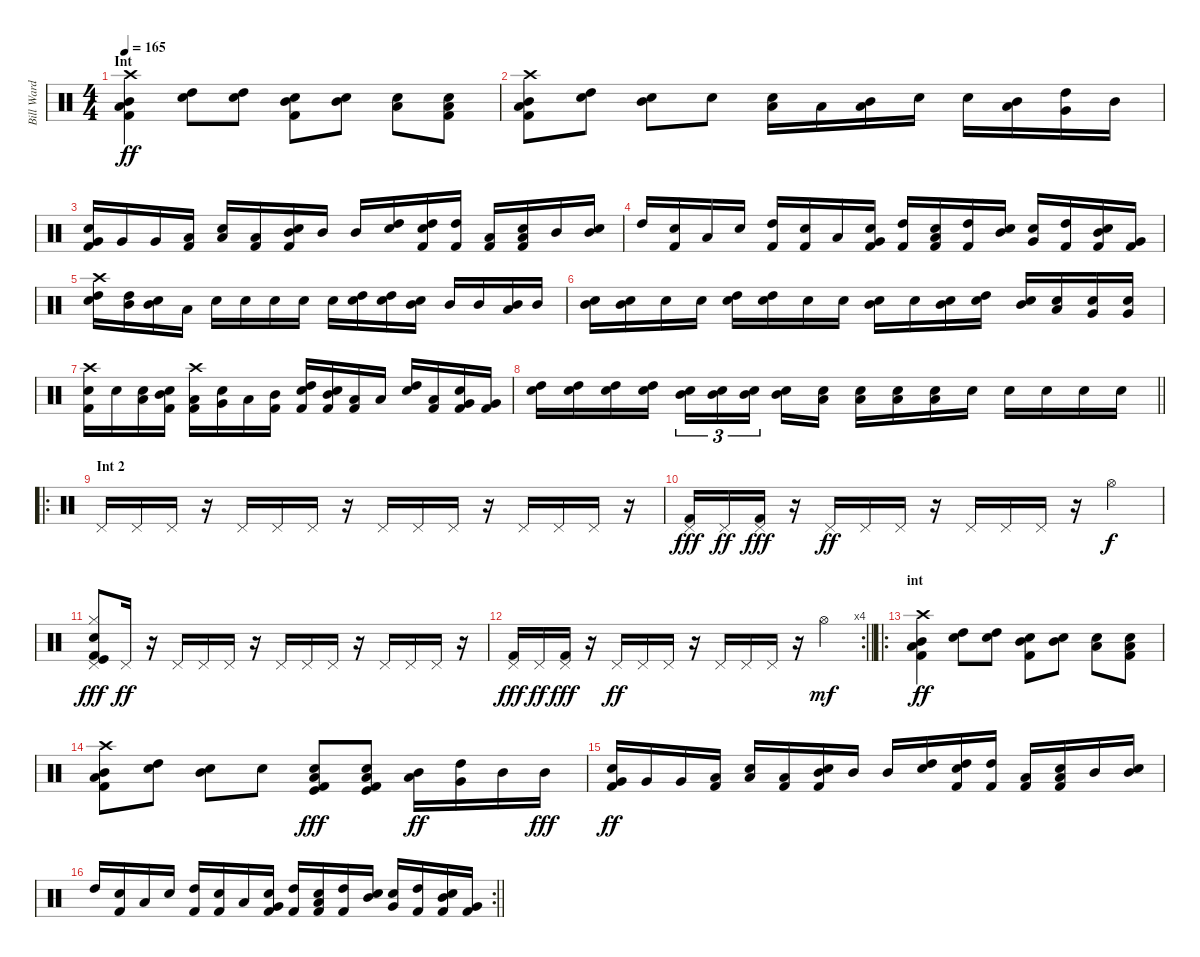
\track ("Bill Ward" "Bill Ward") {instrument percussion}
\staff {score}
\articulation defaults
\ts (4 4)
\section ("" "Int")
\tempo 165
\clef neutral
\ks c
("Crash high (hit)" "Low Tom (hit)" "Mid Tom (hit)" "Kick (hit) 2").4{dy ff} ("High Tom (hit)" "Snare (hit) 2").8 ("High Tom (hit)" "Snare (hit) 2").8 ("Mid Tom (hit)" "Snare (hit) 2" "Kick (hit) 2").8 ("Mid Tom (hit)" "Snare (hit) 2").8 ("Low Tom (hit)" "Snare (hit) 2").8 ("Low Tom (hit)" "Snare (hit) 2" "Kick (hit) 2").8 |
("Crash high (hit)" "Low Tom (hit)" "Mid Tom (hit)" "Kick (hit) 2").8 ("High Tom (hit)" "Snare (hit) 2").8 ("Mid Tom (hit)" "Snare (hit) 2").8 "Snare (hit) 2".8 ("Low Tom (hit)" "Snare (hit) 2").16 "Low Tom (hit)".16 ("Mid Tom (hit)" "Low Tom (hit)").16 "Snare (hit) 2".16 "Snare (hit) 2".16 ("Low Tom (hit)" "Mid Tom (hit)").16 ("Very Low Tom (hit)" "High Tom (hit)").16 "Mid Tom (hit)".16 |
("Very Low Tom (hit)" "Snare (hit) 2" "Kick (hit) 2").16 "Very Low Tom (hit)".16 "Very Low Tom (hit)".16 ("Low Tom (hit)" "Kick (hit) 2").16 ("Low Tom (hit)" "Snare (hit) 2").16 ("Low Tom (hit)" "Kick (hit) 2").16 ("Mid Tom (hit)" "Snare (hit) 2" "Kick (hit) 2").16 "Mid Tom (hit)".16 "Mid Tom (hit)".16 ("High Tom (hit)" "Snare (hit) 2").16 ("High Tom (hit)" "Snare (hit) 2" "Kick (hit) 2").16 ("High Tom (hit)" "Kick (hit) 2").16 ("Low Tom (hit)" "Kick (hit) 2").16 ("Low Tom (hit)" "Snare (hit) 2" "Kick (hit) 2").16 "Mid Tom (hit)".16 ("Mid Tom (hit)" "Snare (hit) 2").16 |
"High Tom (hit)".16 ("Snare (hit) 2" "Kick (hit) 2").16 "Low Tom (hit)".16 "Snare (hit) 2".16 ("High Tom (hit)" "Kick (hit) 2").16 ("Snare (hit) 2" "Kick (hit) 2").16 "Low Tom (hit)".16 ("Snare (hit) 2" "Very Low Tom (hit)" "Kick (hit) 2").16 ("High Tom (hit)" "Kick (hit) 2").16 ("Snare (hit) 2" "Low Tom (hit)" "Kick (hit) 2").16 ("High Tom (hit)" "Kick (hit) 2").16 ("Snare (hit) 2" "Mid Tom (hit)").16 ("Snare (hit) 2" "Very Low Tom (hit)").16 ("High Tom (hit)" "Kick (hit) 2").16 ("Snare (hit) 2" "Mid Tom (hit)" "Kick (hit) 2").16 ("Very Low Tom (hit)" "Kick (hit) 2").16 |
("Crash high (hit)" "High Tom (hit)" "Snare (hit) 2").16 ("High Tom (hit)" "Mid Tom (hit)").16 ("Mid Tom (hit)" "Snare (hit) 2").16 "Low Tom (hit)".16 "Snare (hit) 2".16 "Snare (hit) 2".16 "Electric Snare (hit)".16 "Electric Snare (hit)".16 "Snare (hit) 2".16 ("High Tom (hit)" "Electric Snare (hit)").16 ("High Tom (hit)" "Snare (hit) 2").16 ("Mid Tom (hit)" "Snare (hit) 2").16 "Mid Tom (hit)".16 "Mid Tom (hit)".16 ("Mid Tom (hit)" "Low Tom (hit)").16 "Mid Tom (hit)".16 |
("Mid Tom (hit)" "Snare (hit) 2").16 ("Mid Tom (hit)" "Snare (hit) 2").16 "Snare (hit) 2".16 "Electric Snare (hit)".16 ("High Tom (hit)" "Electric Snare (hit)").16 ("High Tom (hit)" "Snare (hit) 2").16 "Electric Snare (hit)".16 "Snare (hit) 2".16 ("Mid Tom (hit)" "Snare (hit) 2").16 "Electric Snare (hit)".16 ("Mid Tom (hit)" "Snare (hit) 2").16 ("High Tom (hit)" "Snare (hit) 2").16 ("Mid Tom (hit)" "Electric Snare (hit)").16 ("Low Tom (hit)" "Snare (hit) 2").16 ("Very Low Tom (hit)" "Snare (hit) 2").16 ("Very Low Tom (hit)" "Snare (hit) 2").16 |
("Crash high (hit)" "Snare (hit) 2" "Kick (hit) 2").16 "Snare (hit) 2".16 ("Low Tom (hit)" "Snare (hit) 2").16 ("Mid Tom (hit)" "Snare (hit) 2" "Kick (hit) 2").16 ("Crash high (hit)" "Low Tom (hit)" "Kick (hit) 2").16 ("Very Low Tom (hit)" "Snare (hit) 2").16 "Low Tom (hit)".16 ("Mid Tom (hit)" "Kick (hit) 2").16 ("High Tom (hit)" "Snare (hit) 2" "Kick (hit) 2").16 ("Mid Tom (hit)" "Snare (hit) 2" "Kick (hit) 2").16 ("Low Tom (hit)" "Kick (hit) 2").16 "Low Tom (hit)".16 ("High Tom (hit)" "Snare (hit) 2").16 ("Low Tom (hit)" "Kick (hit) 2").16 ("Very Low Tom (hit)" "Snare (hit) 2" "Kick (hit) 2").16 ("Very Low Tom (hit)" "Kick (hit) 2").16 |
\barLineRight lightlight
("High Tom (hit)" "Snare (hit) 2").16 ("High Tom (hit)" "Snare (hit) 2").16 ("High Tom (hit)" "Snare (hit) 2").16 ("High Tom (hit)" "Snare (hit) 2").16 ("Mid Tom (hit)" "Snare (hit) 2").16{tu (3 2)} ("Mid Tom (hit)" "Snare (hit) 2").16{tu (3 2)} ("Mid Tom (hit)" "Snare (hit) 2").16{tu (3 2) beam splitsecondary} ("Mid Tom (hit)" "Snare (hit) 2").16 ("Low Tom (hit)" "Snare (hit) 2").16 ("Low Tom (hit)" "Snare (hit) 2").16 ("Low Tom (hit)" "Snare (hit) 2").16 ("Low Tom (hit)" "Snare (hit) 2").16 "Snare (hit) 2".16 "Snare (hit) 2".16 "Snare (hit) 2".16 "Snare (hit) 2".16 "Snare (hit) 2".16 |
\ro
\section ("" "Int 2")
"Pedal Hi-Hat (hit)".16 "Pedal Hi-Hat (hit)".16 "Pedal Hi-Hat (hit)".16 r.16 "Pedal Hi-Hat (hit)".16 "Pedal Hi-Hat (hit)".16 "Pedal Hi-Hat (hit)".16 r.16 "Pedal Hi-Hat (hit)".16 "Pedal Hi-Hat (hit)".16 "Pedal Hi-Hat (hit)".16 r.16 "Pedal Hi-Hat (hit)".16 "Pedal Hi-Hat (hit)".16 "Pedal Hi-Hat (hit)".16 r.16 |
("Pedal Hi-Hat (hit)" "Kick (hit) 2").16{dy fff} "Pedal Hi-Hat (hit)".16{dy ff} ("Pedal Hi-Hat (hit)" "Kick (hit) 2").16{dy fff} r.16 "Pedal Hi-Hat (hit)".16{dy ff} "Pedal Hi-Hat (hit)".16 "Pedal Hi-Hat (hit)".16 r.16 "Pedal Hi-Hat (hit)".16 "Pedal Hi-Hat (hit)".16 "Pedal Hi-Hat (hit)".16 r.16 "Hi-Hat (open)".4{dy f} |
("Hi-Hat (closed)" "Pedal Hi-Hat (hit)" "Snare (hit) 2" "Kick (hit)" "Kick (hit) 2").8{dy fff} "Pedal Hi-Hat (hit)".16{dy ff} r.16 "Pedal Hi-Hat (hit)".16 "Pedal Hi-Hat (hit)".16 "Pedal Hi-Hat (hit)".16 r.16 "Pedal Hi-Hat (hit)".16 "Pedal Hi-Hat (hit)".16 "Pedal Hi-Hat (hit)".16 r.16 "Pedal Hi-Hat (hit)".16 "Pedal Hi-Hat (hit)".16 "Pedal Hi-Hat (hit)".16 r.16 |
\rc 4
\barLineRight lightlight
("Pedal Hi-Hat (hit)" "Kick (hit) 2").16{dy fff} "Pedal Hi-Hat (hit)".16{dy ff} ("Pedal Hi-Hat (hit)" "Kick (hit) 2").16{dy fff} r.16 "Pedal Hi-Hat (hit)".16{dy ff} "Pedal Hi-Hat (hit)".16 "Pedal Hi-Hat (hit)".16 r.16 "Pedal Hi-Hat (hit)".16 "Pedal Hi-Hat (hit)".16 "Pedal Hi-Hat (hit)".16 r.16 "Hi-Hat (open)".4{dy mf} |
\ro
\section ("" "int")
("Crash high (hit)" "Low Tom (hit)" "Mid Tom (hit)" "Kick (hit) 2").4{dy ff} ("High Tom (hit)" "Snare (hit) 2").8 ("High Tom (hit)" "Snare (hit) 2").8 ("Mid Tom (hit)" "Snare (hit) 2" "Kick (hit) 2").8 ("Mid Tom (hit)" "Snare (hit) 2").8 ("Low Tom (hit)" "Snare (hit) 2").8 ("Low Tom (hit)" "Snare (hit) 2" "Kick (hit) 2").8 |
("Crash high (hit)" "Low Tom (hit)" "Mid Tom (hit)" "Kick (hit) 2").8 ("High Tom (hit)" "Snare (hit) 2").8 ("Mid Tom (hit)" "Snare (hit) 2").8 "Snare (hit) 2".8 ("Low Tom (hit)" "Snare (hit) 2" "Kick (hit)" "Kick (hit) 2").8{dy fff} ("Low Tom (hit)" "Snare (hit) 2" "Kick (hit)" "Kick (hit) 2").8 ("Low Tom (hit)" "Mid Tom (hit)").16{dy ff} ("Very Low Tom (hit)" "High Tom (hit)").16 "Mid Tom (hit)".16 "Mid Tom (hit)".16{dy fff} |
("Very Low Tom (hit)" "Snare (hit) 2" "Kick (hit) 2").16{dy ff} "Very Low Tom (hit)".16 "Very Low Tom (hit)".16 ("Low Tom (hit)" "Kick (hit) 2").16 ("Low Tom (hit)" "Snare (hit) 2").16 ("Low Tom (hit)" "Kick (hit) 2").16 ("Mid Tom (hit)" "Snare (hit) 2" "Kick (hit) 2").16 "Mid Tom (hit)".16 "Mid Tom (hit)".16 ("High Tom (hit)" "Snare (hit) 2").16 ("High Tom (hit)" "Snare (hit) 2" "Kick (hit) 2").16 ("High Tom (hit)" "Kick (hit) 2").16 ("Low Tom (hit)" "Kick (hit) 2").16 ("Low Tom (hit)" "Snare (hit) 2" "Kick (hit) 2").16 "Mid Tom (hit)".16 ("Mid Tom (hit)" "Snare (hit) 2").16 |
\rc 2
\barLineRight lightlight "High Tom (hit)".16
("Snare (hit) 2" "Kick (hit) 2").16 "Low Tom (hit)".16 "Snare (hit) 2".16 ("High Tom (hit)" "Kick (hit) 2").16 ("Snare (hit) 2" "Kick (hit) 2").16 "Low Tom (hit)".16 ("Snare (hit) 2" "Very Low Tom (hit)" "Kick (hit) 2").16 ("High Tom (hit)" "Kick (hit) 2").16 ("Snare (hit) 2" "Low Tom (hit)" "Kick (hit) 2").16 ("High Tom (hit)" "Kick (hit) 2").16 ("Snare (hit) 2" "Mid Tom (hit)").16 ("Snare (hit) 2" "Very Low Tom (hit)").16 ("High Tom (hit)" "Kick (hit) 2").16 ("Snare (hit) 2" "Mid Tom (hit)" "Kick (hit) 2").16 ("Very Low Tom (hit)" "Kick (hit) 2").16
